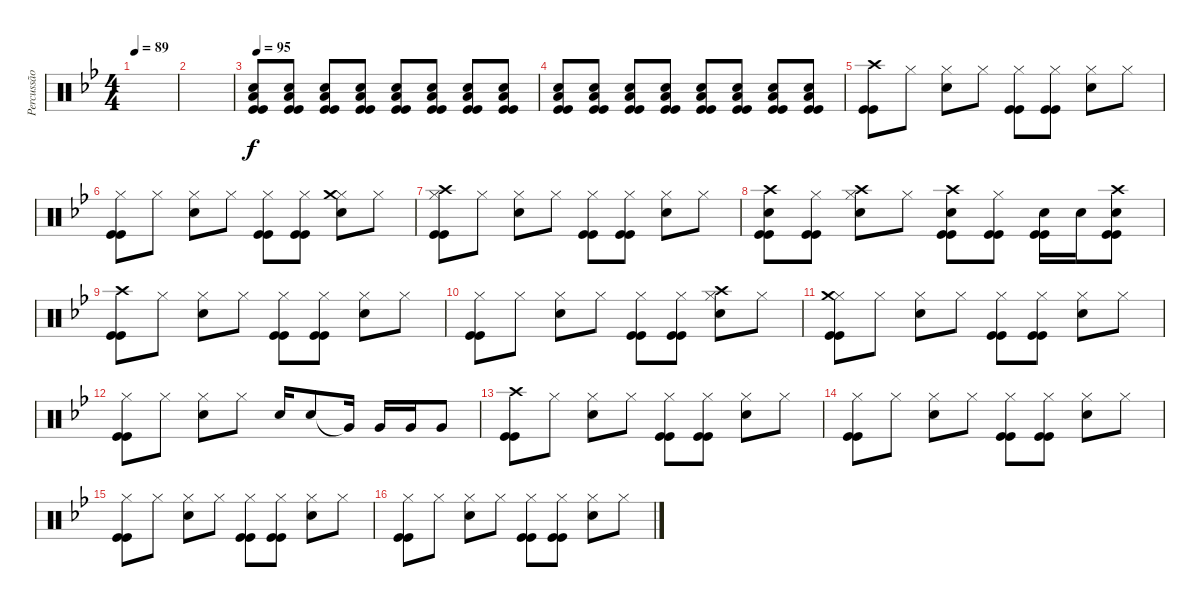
\track ("Percussão" "Percussão") {instrument percussion}
\staff {score}
\articulation defaults
\ts (4 4)
\tempo 89
\clef neutral
\ks gminor
|
|
\tempo 95
("Kick (hit)" "Kick (hit)" "Electric Snare (hit)" "Low Floor Tom (hit)").8 ("Kick (hit)" "Kick (hit)" "Electric Snare (hit)" "Low Floor Tom (hit)").8 ("Kick (hit)" "Kick (hit)" "Electric Snare (hit)" "Low Floor Tom (hit)").8 ("Kick (hit)" "Kick (hit)" "Electric Snare (hit)" "Low Floor Tom (hit)").8 ("Kick (hit)" "Kick (hit)" "Electric Snare (hit)" "Low Floor Tom (hit)").8 ("Kick (hit)" "Kick (hit)" "Electric Snare (hit)" "Low Floor Tom (hit)").8 ("Kick (hit)" "Kick (hit)" "Electric Snare (hit)" "Low Floor Tom (hit)").8 ("Kick (hit)" "Kick (hit)" "Electric Snare (hit)" "Low Floor Tom (hit)").8 |
("Kick (hit)" "Kick (hit)" "Electric Snare (hit)" "Low Floor Tom (hit)").8 ("Kick (hit)" "Kick (hit)" "Electric Snare (hit)" "Low Floor Tom (hit)").8 ("Kick (hit)" "Kick (hit)" "Electric Snare (hit)" "Low Floor Tom (hit)").8 ("Kick (hit)" "Kick (hit)" "Electric Snare (hit)" "Low Floor Tom (hit)").8 ("Kick (hit)" "Kick (hit)" "Electric Snare (hit)" "Low Floor Tom (hit)").8 ("Kick (hit)" "Kick (hit)" "Electric Snare (hit)" "Low Floor Tom (hit)").8 ("Kick (hit)" "Kick (hit)" "Electric Snare (hit)" "Low Floor Tom (hit)").8 ("Kick (hit)" "Kick (hit)" "Electric Snare (hit)" "Low Floor Tom (hit)").8 |
("Kick (hit)" "Kick (hit)" "Crash high (hit)").8 "Hi-Hat (closed)".8 ("Electric Snare (hit)" "Hi-Hat (closed)").8 "Hi-Hat (closed)".8 ("Kick (hit)" "Kick (hit)" "Hi-Hat (closed)").8 ("Kick (hit)" "Kick (hit)" "Hi-Hat (closed)").8 ("Electric Snare (hit)" "Hi-Hat (closed)").8 "Hi-Hat (closed)".8 |
("Kick (hit)" "Kick (hit)" "Hi-Hat (closed)").8 "Hi-Hat (closed)".8 ("Electric Snare (hit)" "Hi-Hat (closed)").8 "Hi-Hat (closed)".8 ("Kick (hit)" "Kick (hit)" "Hi-Hat (closed)").8 ("Kick (hit)" "Kick (hit)" "Hi-Hat (closed)").8 ("Electric Snare (hit)" "Hi-Hat (closed)" "Crash medium (hit)").8 "Hi-Hat (closed)".8 |
("Kick (hit)" "Kick (hit)" "Hi-Hat (closed)" "Crash high (hit)").8 "Hi-Hat (closed)".8 ("Electric Snare (hit)" "Hi-Hat (closed)").8 "Hi-Hat (closed)".8 ("Kick (hit)" "Kick (hit)" "Hi-Hat (closed)").8 ("Kick (hit)" "Kick (hit)" "Hi-Hat (closed)").8 ("Electric Snare (hit)" "Hi-Hat (closed)").8 "Hi-Hat (closed)".8 |
("Kick (hit)" "Kick (hit)" "Crash high (hit)" "Electric Snare (hit)").8 ("Kick (hit)" "Kick (hit)" "Hi-Hat (closed)").8 ("Electric Snare (hit)" "Hi-Hat (closed)" "Crash high (hit)").8 "Hi-Hat (closed)".8 ("Kick (hit)" "Kick (hit)" "Crash high (hit)" "Electric Snare (hit)").8 ("Kick (hit)" "Kick (hit)" "Hi-Hat (closed)").8 ("Kick (hit)" "Kick (hit)" "Electric Snare (hit)").16 "Electric Snare (hit)".16 ("Kick (hit)" "Kick (hit)" "Electric Snare (hit)" "Crash high (hit)").8 |
("Kick (hit)" "Kick (hit)" "Crash high (hit)").8 "Hi-Hat (closed)".8 ("Electric Snare (hit)" "Hi-Hat (closed)").8 "Hi-Hat (closed)".8 ("Kick (hit)" "Kick (hit)" "Hi-Hat (closed)").8 ("Kick (hit)" "Kick (hit)" "Hi-Hat (closed)").8 ("Electric Snare (hit)" "Hi-Hat (closed)").8 "Hi-Hat (closed)".8 |
("Kick (hit)" "Kick (hit)" "Hi-Hat (closed)").8 "Hi-Hat (closed)".8 ("Electric Snare (hit)" "Hi-Hat (closed)").8 "Hi-Hat (closed)".8 ("Kick (hit)" "Kick (hit)" "Hi-Hat (closed)").8 ("Kick (hit)" "Kick (hit)" "Hi-Hat (closed)").8 ("Electric Snare (hit)" "Hi-Hat (closed)" "Crash high (hit)").8 "Hi-Hat (closed)".8 |
("Kick (hit)" "Kick (hit)" "Hi-Hat (closed)" "Crash medium (hit)").8 "Hi-Hat (closed)".8 ("Electric Snare (hit)" "Hi-Hat (closed)").8 "Hi-Hat (closed)".8 ("Kick (hit)" "Kick (hit)" "Hi-Hat (closed)").8 ("Kick (hit)" "Kick (hit)" "Hi-Hat (closed)").8 ("Electric Snare (hit)" "Hi-Hat (closed)").8 "Hi-Hat (closed)".8 |
("Kick (hit)" "Kick (hit)" "Hi-Hat (closed)").8 "Hi-Hat (closed)".8 ("Electric Snare (hit)" "Hi-Hat (closed)").8 "Hi-Hat (closed)".8 "Electric Snare (hit)".16 "Electric Snare (hit)".8 "Very Low Tom (hit)"{t}.16 "Very Low Tom (hit)".16 "Very Low Tom (hit)".16 "Very Low Tom (hit)".8 |
("Kick (hit)" "Kick (hit)" "Crash high (hit)").8 "Hi-Hat (closed)".8 ("Electric Snare (hit)" "Hi-Hat (closed)").8 "Hi-Hat (closed)".8 ("Kick (hit)" "Kick (hit)" "Hi-Hat (closed)").8 ("Kick (hit)" "Kick (hit)" "Hi-Hat (closed)").8 ("Electric Snare (hit)" "Hi-Hat (closed)").8 "Hi-Hat (closed)".8 |
("Kick (hit)" "Kick (hit)" "Hi-Hat (closed)").8 "Hi-Hat (closed)".8 ("Electric Snare (hit)" "Hi-Hat (closed)").8 "Hi-Hat (closed)".8 ("Kick (hit)" "Kick (hit)" "Hi-Hat (closed)").8 ("Kick (hit)" "Kick (hit)" "Hi-Hat (closed)").8 ("Electric Snare (hit)" "Hi-Hat (closed)").8 "Hi-Hat (closed)".8 |
("Kick (hit)" "Kick (hit)" "Hi-Hat (closed)").8 "Hi-Hat (closed)".8 ("Electric Snare (hit)" "Hi-Hat (closed)").8 "Hi-Hat (closed)".8 ("Kick (hit)" "Kick (hit)" "Hi-Hat (closed)").8 ("Kick (hit)" "Kick (hit)" "Hi-Hat (closed)").8 ("Electric Snare (hit)" "Hi-Hat (closed)").8 "Hi-Hat (closed)".8 |
("Kick (hit)" "Kick (hit)" "Hi-Hat (closed)").8 "Hi-Hat (closed)".8 ("Electric Snare (hit)" "Hi-Hat (closed)").8 "Hi-Hat (closed)".8 ("Kick (hit)" "Kick (hit)" "Hi-Hat (closed)").8 ("Kick (hit)" "Kick (hit)" "Hi-Hat (closed)").8 ("Electric Snare (hit)" "Hi-Hat (closed)").8 "Hi-Hat (closed)".8
